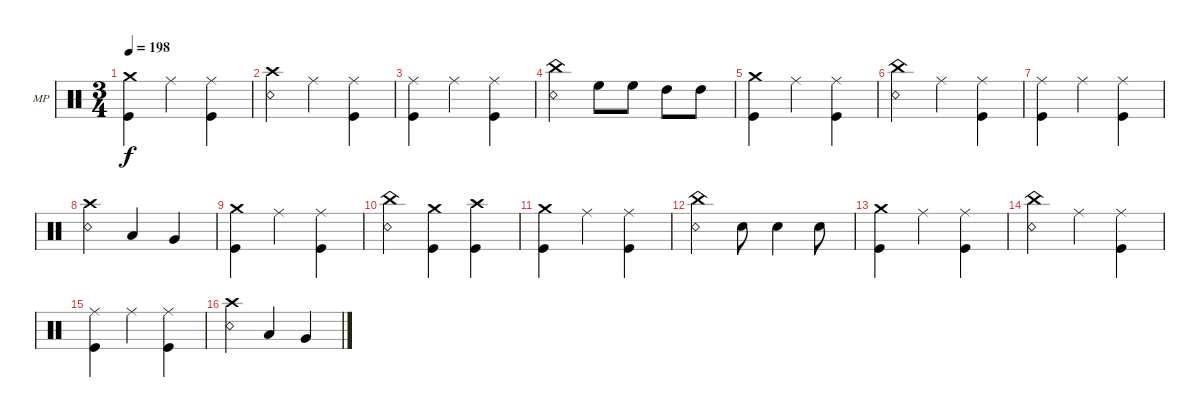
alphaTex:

\defaultSystemsLayout 4
\bracketExtendMode groupsimilarinstruments
\firstSystemTrackNameOrientation horizontal
\otherSystemsTrackNameOrientation horizontal
\track ("Mike Portnoy" "MP") {instrument percussion}
\staff {score}
\articulation defaults
\ts (3 4)
\tempo 198
\clef neutral
\ks c
("Crash medium (hit)" "Kick (hit)").4{dy f} "Ride (middle)".4 ("Ride (middle)" "Kick (hit)").4 |
("Crash high (hit)" "Snare (rim shot)").4 "Ride (middle)".4 ("Ride (middle)" "Kick (hit)").4 |
("Ride (middle)" "Kick (hit)").4 "Ride (middle)".4 ("Ride (middle)" "Kick (hit)").4 |
("China (hit)" "Snare (rim shot)").4 "High Floor Tom (hit)".8 "High Floor Tom (hit)".8 "High Tom (hit)".8 "High Tom (hit)".8 |
("Crash medium (hit)" "Kick (hit)").4 "Ride (middle)".4 ("Ride (middle)" "Kick (hit)").4 |
("China (hit)" "Snare (rim shot)").4 "Ride (middle)".4 ("Ride (middle)" "Kick (hit)").4 |
("Ride (middle)" "Kick (hit)").4 "Ride (middle)".4 ("Ride (middle)" "Kick (hit)").4 |
("Crash high (hit)" "Snare (rim shot)").4 "Low Tom (hit)".4 "Very Low Tom (hit)".4 |
("Crash medium (hit)" "Kick (hit)").4 "Ride (middle)".4 ("Ride (middle)" "Kick (hit)").4 |
("China (hit)" "Snare (rim shot)").4 ("Crash medium (hit)" "Kick (hit)").4 ("Crash high (hit)" "Kick (hit)").4 |
("Crash medium (hit)" "Kick (hit)").4 "Ride (middle)".4 ("Ride (middle)" "Kick (hit)").4 |
("China (hit)" "Snare (rim shot)").4 "Snare (hit) 2".8 "Snare (hit) 2".4 "Snare (hit) 2".8 |
("Crash medium (hit)" "Kick (hit)").4 "Ride (middle)".4 ("Ride (middle)" "Kick (hit)").4 |
("China (hit)" "Snare (rim shot)").4 "Ride (middle)".4 ("Ride (middle)" "Kick (hit)").4 |
("Ride (middle)" "Kick (hit)").4 "Ride (middle)".4 ("Ride (middle)" "Kick (hit)").4 |
("Crash high (hit)" "Snare (rim shot)").4 "Low Tom (hit)".4 "Very Low Tom (hit)".4
